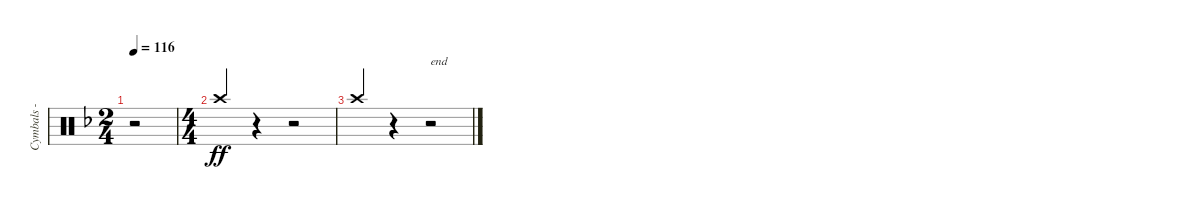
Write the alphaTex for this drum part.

\track ("Cymbals - crash" "Cymbals - ") {instrument percussion}
\staff {score}
\articulation defaults
\ts (2 4)
\tempo 116
\clef neutral
\ks dminor
r.2{dy ff} |
\ts (4 4)
\ks f "Crash high (hit)".4{beam Up}
r.4 r.2 |
"Crash high (hit)".4{volume 0 beam Up} r.4 r.2{txt "end"}
